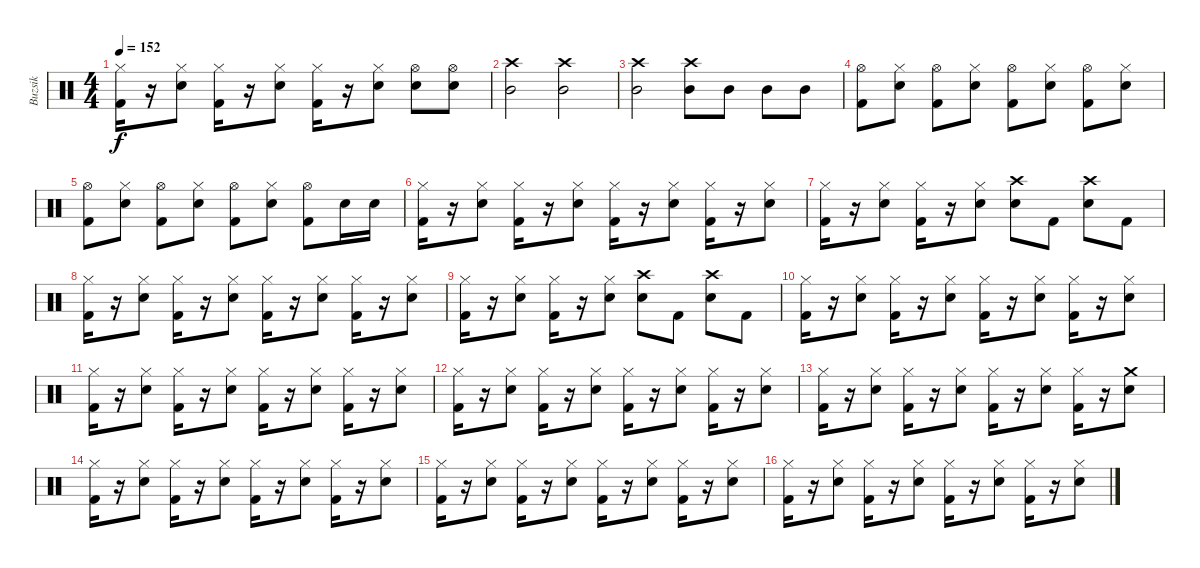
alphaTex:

\track ("Buzsik" "Buzsik") {instrument percussion}
\staff {score}
\articulation defaults
\ts (4 4)
\tempo 152
\clef neutral
\ks c
("Hi-Hat (closed)" "Kick (hit) 2").16{dy f} r.16 ("Hi-Hat (closed)" "Electric Snare (hit)").8 ("Hi-Hat (closed)" "Kick (hit) 2").16 r.16 ("Hi-Hat (closed)" "Electric Snare (hit)").8 ("Hi-Hat (closed)" "Kick (hit) 2").16 r.16 ("Hi-Hat (closed)" "Electric Snare (hit)").8 ("Hi-Hat (open)" "Electric Snare (hit)").8 ("Hi-Hat (open)" "Electric Snare (hit)").8 |
("Crash high (hit)" "Mid Tom (hit)").2 ("Crash high (hit)" "Mid Tom (hit)").2 |
("Crash high (hit)" "Mid Tom (hit)").2 ("Crash high (hit)" "Mid Tom (hit)").8 "Mid Tom (hit)".8 "Mid Tom (hit)".8 "Mid Tom (hit)".8 |
("Hi-Hat (open)" "Kick (hit) 2").8 ("Hi-Hat (closed)" "Electric Snare (hit)").8 ("Hi-Hat (open)" "Kick (hit) 2").8 ("Hi-Hat (closed)" "Electric Snare (hit)").8 ("Hi-Hat (open)" "Kick (hit) 2").8 ("Hi-Hat (closed)" "Electric Snare (hit)").8 ("Hi-Hat (open)" "Kick (hit) 2").8 ("Hi-Hat (closed)" "Electric Snare (hit)").8 |
("Hi-Hat (open)" "Kick (hit) 2").8 ("Hi-Hat (closed)" "Electric Snare (hit)").8 ("Hi-Hat (open)" "Kick (hit) 2").8 ("Hi-Hat (closed)" "Electric Snare (hit)").8 ("Hi-Hat (open)" "Kick (hit) 2").8 ("Hi-Hat (closed)" "Electric Snare (hit)").8 ("Hi-Hat (open)" "Kick (hit) 2").8 "Electric Snare (hit)".16 "Electric Snare (hit)".16 |
("Hi-Hat (closed)" "Kick (hit) 2").16 r.16 ("Hi-Hat (closed)" "Electric Snare (hit)").8 ("Hi-Hat (closed)" "Kick (hit) 2").16 r.16 ("Hi-Hat (closed)" "Electric Snare (hit)").8 ("Hi-Hat (closed)" "Kick (hit) 2").16 r.16 ("Hi-Hat (closed)" "Electric Snare (hit)").8 ("Hi-Hat (closed)" "Kick (hit) 2").16 r.16 ("Hi-Hat (closed)" "Electric Snare (hit)").8 |
("Hi-Hat (closed)" "Kick (hit) 2").16 r.16 ("Hi-Hat (closed)" "Electric Snare (hit)").8 ("Hi-Hat (closed)" "Kick (hit) 2").16 r.16 ("Hi-Hat (closed)" "Electric Snare (hit)").8 ("Crash high (hit)" "Snare (hit) 2").8 "Kick (hit) 2".8 ("Crash high (hit)" "Snare (hit) 2").8 "Kick (hit) 2".8 |
("Hi-Hat (closed)" "Kick (hit) 2").16 r.16 ("Hi-Hat (closed)" "Electric Snare (hit)").8 ("Hi-Hat (closed)" "Kick (hit) 2").16 r.16 ("Hi-Hat (closed)" "Electric Snare (hit)").8 ("Hi-Hat (closed)" "Kick (hit) 2").16 r.16 ("Hi-Hat (closed)" "Electric Snare (hit)").8 ("Hi-Hat (closed)" "Kick (hit) 2").16 r.16 ("Hi-Hat (closed)" "Electric Snare (hit)").8 |
("Hi-Hat (closed)" "Kick (hit) 2").16 r.16 ("Hi-Hat (closed)" "Electric Snare (hit)").8 ("Hi-Hat (closed)" "Kick (hit) 2").16 r.16 ("Hi-Hat (closed)" "Electric Snare (hit)").8 ("Crash high (hit)" "Snare (hit) 2").8 "Kick (hit) 2".8 ("Crash high (hit)" "Snare (hit) 2").8 "Kick (hit) 2".8 |
("Hi-Hat (closed)" "Kick (hit) 2").16 r.16 ("Hi-Hat (closed)" "Electric Snare (hit)").8 ("Hi-Hat (closed)" "Kick (hit) 2").16 r.16 ("Hi-Hat (closed)" "Electric Snare (hit)").8 ("Hi-Hat (closed)" "Kick (hit) 2").16 r.16 ("Hi-Hat (closed)" "Electric Snare (hit)").8 ("Hi-Hat (closed)" "Kick (hit) 2").16 r.16 ("Hi-Hat (closed)" "Electric Snare (hit)").8 |
("Hi-Hat (closed)" "Kick (hit) 2").16 r.16 ("Hi-Hat (closed)" "Electric Snare (hit)").8 ("Hi-Hat (closed)" "Kick (hit) 2").16 r.16 ("Hi-Hat (closed)" "Electric Snare (hit)").8 ("Hi-Hat (closed)" "Kick (hit) 2").16 r.16 ("Hi-Hat (closed)" "Electric Snare (hit)").8 ("Hi-Hat (closed)" "Kick (hit) 2").16 r.16 ("Hi-Hat (closed)" "Electric Snare (hit)").8 |
("Hi-Hat (closed)" "Kick (hit) 2").16 r.16 ("Hi-Hat (closed)" "Electric Snare (hit)").8 ("Hi-Hat (closed)" "Kick (hit) 2").16 r.16 ("Hi-Hat (closed)" "Electric Snare (hit)").8 ("Hi-Hat (closed)" "Kick (hit) 2").16 r.16 ("Hi-Hat (closed)" "Electric Snare (hit)").8 ("Hi-Hat (closed)" "Kick (hit) 2").16 r.16 ("Hi-Hat (closed)" "Electric Snare (hit)").8 |
("Hi-Hat (closed)" "Kick (hit) 2").16 r.16 ("Hi-Hat (closed)" "Electric Snare (hit)").8 ("Hi-Hat (closed)" "Kick (hit) 2").16 r.16 ("Hi-Hat (closed)" "Electric Snare (hit)").8 ("Hi-Hat (closed)" "Kick (hit) 2").16 r.16 ("Hi-Hat (closed)" "Electric Snare (hit)").8 ("Hi-Hat (closed)" "Kick (hit) 2").16 r.16 ("Crash medium (hit)" "Electric Snare (hit)").8 |
("Hi-Hat (closed)" "Kick (hit) 2").16 r.16 ("Hi-Hat (closed)" "Electric Snare (hit)").8 ("Hi-Hat (closed)" "Kick (hit) 2").16 r.16 ("Hi-Hat (closed)" "Electric Snare (hit)").8 ("Hi-Hat (closed)" "Kick (hit) 2").16 r.16 ("Hi-Hat (closed)" "Electric Snare (hit)").8 ("Hi-Hat (closed)" "Kick (hit) 2").16 r.16 ("Hi-Hat (closed)" "Electric Snare (hit)").8 |
("Hi-Hat (closed)" "Kick (hit) 2").16 r.16 ("Hi-Hat (closed)" "Electric Snare (hit)").8 ("Hi-Hat (closed)" "Kick (hit) 2").16 r.16 ("Hi-Hat (closed)" "Electric Snare (hit)").8 ("Hi-Hat (closed)" "Kick (hit) 2").16 r.16 ("Hi-Hat (closed)" "Electric Snare (hit)").8 ("Hi-Hat (closed)" "Kick (hit) 2").16 r.16 ("Hi-Hat (closed)" "Electric Snare (hit)").8 |
("Hi-Hat (closed)" "Kick (hit) 2").16 r.16 ("Hi-Hat (closed)" "Electric Snare (hit)").8 ("Hi-Hat (closed)" "Kick (hit) 2").16 r.16 ("Hi-Hat (closed)" "Electric Snare (hit)").8 ("Hi-Hat (closed)" "Kick (hit) 2").16 r.16 ("Hi-Hat (closed)" "Electric Snare (hit)").8 ("Hi-Hat (closed)" "Kick (hit) 2").16 r.16 ("Hi-Hat (closed)" "Electric Snare (hit)").8
